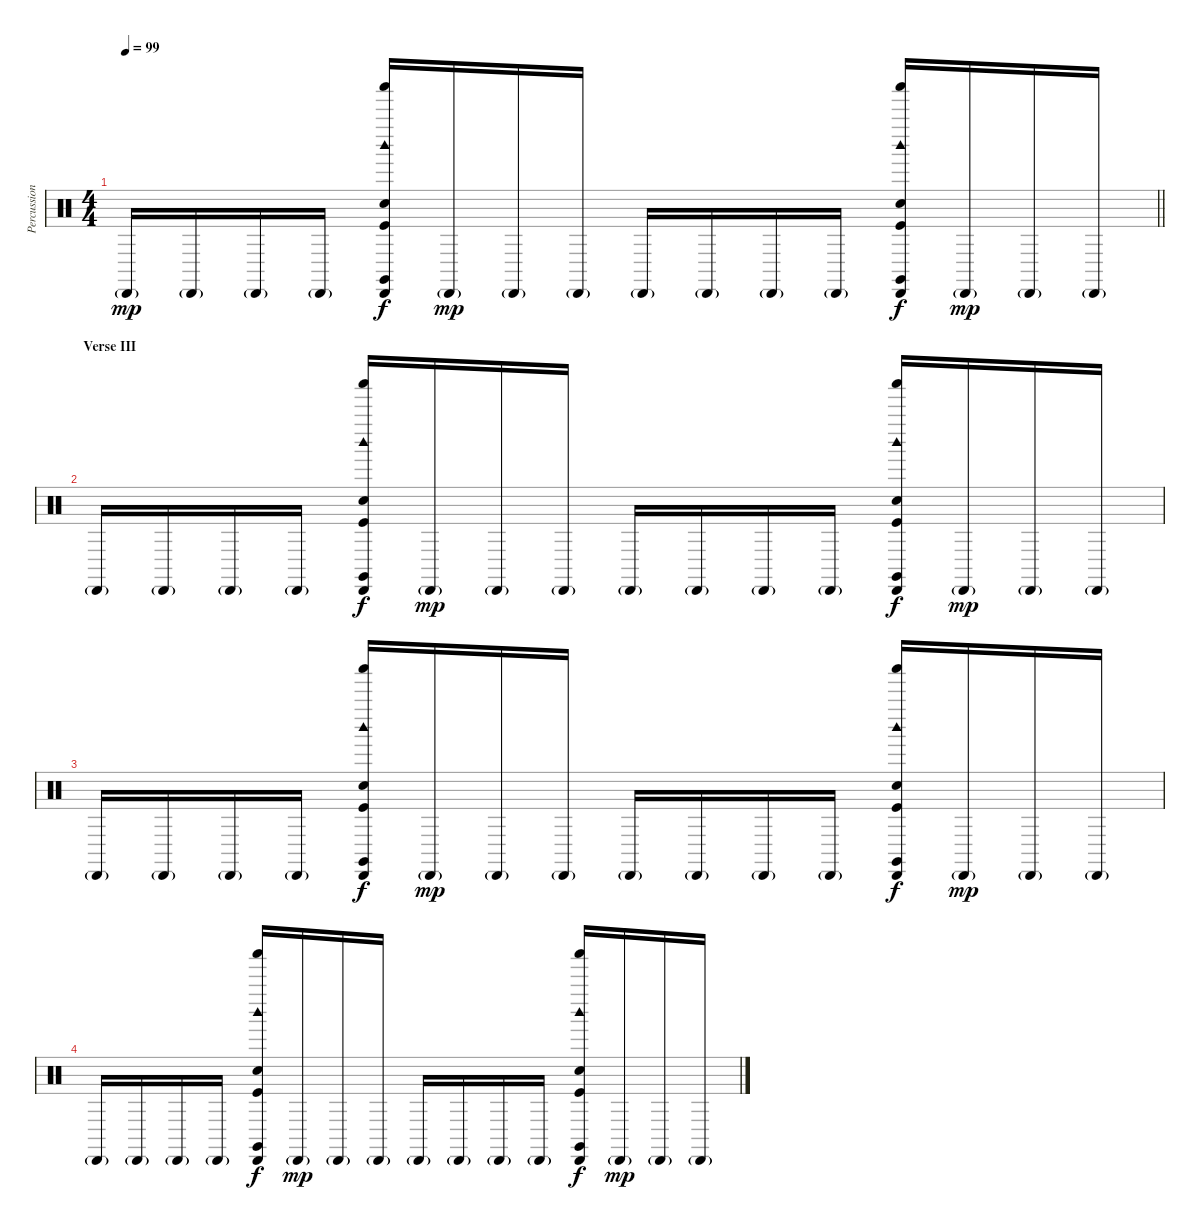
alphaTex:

\track ("Percussion" "Percussion") {instrument percussion}
\staff {score}
\articulation defaults
\ts (4 4)
\tempo 99
\clef neutral
\barLineRight lightlight
\ks c "Cabasa (hit)"{g}.16{dy mp} "Cabasa (hit)"{g}.16 "Cabasa (hit)"{g}.16 "Cabasa (hit)"{g}.16
("Cabasa (hit)" "Shaker (hit)" "Claves (hit)" "Woodblock high (hit)" "Hand Clap (hit)" "Kick (hit)").16{dy f} "Cabasa (hit)"{g}.16{dy mp} "Cabasa (hit)"{g}.16 "Cabasa (hit)"{g}.16 "Cabasa (hit)"{g}.16 "Cabasa (hit)"{g}.16 "Cabasa (hit)"{g}.16 "Cabasa (hit)"{g}.16 ("Cabasa (hit)" "Shaker (hit)" "Claves (hit)" "Woodblock high (hit)" "Hand Clap (hit)" "Kick (hit)").16{dy f} "Cabasa (hit)"{g}.16{dy mp} "Cabasa (hit)"{g}.16 "Cabasa (hit)"{g}.16 |
\section ("" "Verse III")
"Cabasa (hit)"{g}.16 "Cabasa (hit)"{g}.16 "Cabasa (hit)"{g}.16 "Cabasa (hit)"{g}.16 ("Cabasa (hit)" "Shaker (hit)" "Claves (hit)" "Woodblock high (hit)" "Hand Clap (hit)" "Kick (hit)").16{dy f} "Cabasa (hit)"{g}.16{dy mp} "Cabasa (hit)"{g}.16 "Cabasa (hit)"{g}.16 "Cabasa (hit)"{g}.16 "Cabasa (hit)"{g}.16 "Cabasa (hit)"{g}.16 "Cabasa (hit)"{g}.16 ("Cabasa (hit)" "Shaker (hit)" "Claves (hit)" "Woodblock high (hit)" "Hand Clap (hit)" "Kick (hit)").16{dy f} "Cabasa (hit)"{g}.16{dy mp} "Cabasa (hit)"{g}.16 "Cabasa (hit)"{g}.16 |
"Cabasa (hit)"{g}.16 "Cabasa (hit)"{g}.16 "Cabasa (hit)"{g}.16 "Cabasa (hit)"{g}.16 ("Cabasa (hit)" "Shaker (hit)" "Claves (hit)" "Woodblock high (hit)" "Hand Clap (hit)" "Kick (hit)").16{dy f} "Cabasa (hit)"{g}.16{dy mp} "Cabasa (hit)"{g}.16 "Cabasa (hit)"{g}.16 "Cabasa (hit)"{g}.16 "Cabasa (hit)"{g}.16 "Cabasa (hit)"{g}.16 "Cabasa (hit)"{g}.16 ("Cabasa (hit)" "Shaker (hit)" "Claves (hit)" "Woodblock high (hit)" "Hand Clap (hit)" "Kick (hit)").16{dy f} "Cabasa (hit)"{g}.16{dy mp} "Cabasa (hit)"{g}.16 "Cabasa (hit)"{g}.16 |
"Cabasa (hit)"{g}.16 "Cabasa (hit)"{g}.16 "Cabasa (hit)"{g}.16 "Cabasa (hit)"{g}.16 ("Cabasa (hit)" "Shaker (hit)" "Claves (hit)" "Woodblock high (hit)" "Hand Clap (hit)" "Kick (hit)").16{dy f} "Cabasa (hit)"{g}.16{dy mp} "Cabasa (hit)"{g}.16 "Cabasa (hit)"{g}.16 "Cabasa (hit)"{g}.16 "Cabasa (hit)"{g}.16 "Cabasa (hit)"{g}.16 "Cabasa (hit)"{g}.16 ("Cabasa (hit)" "Shaker (hit)" "Claves (hit)" "Woodblock high (hit)" "Hand Clap (hit)" "Kick (hit)").16{dy f} "Cabasa (hit)"{g}.16{dy mp} "Cabasa (hit)"{g}.16 "Cabasa (hit)"{g}.16
